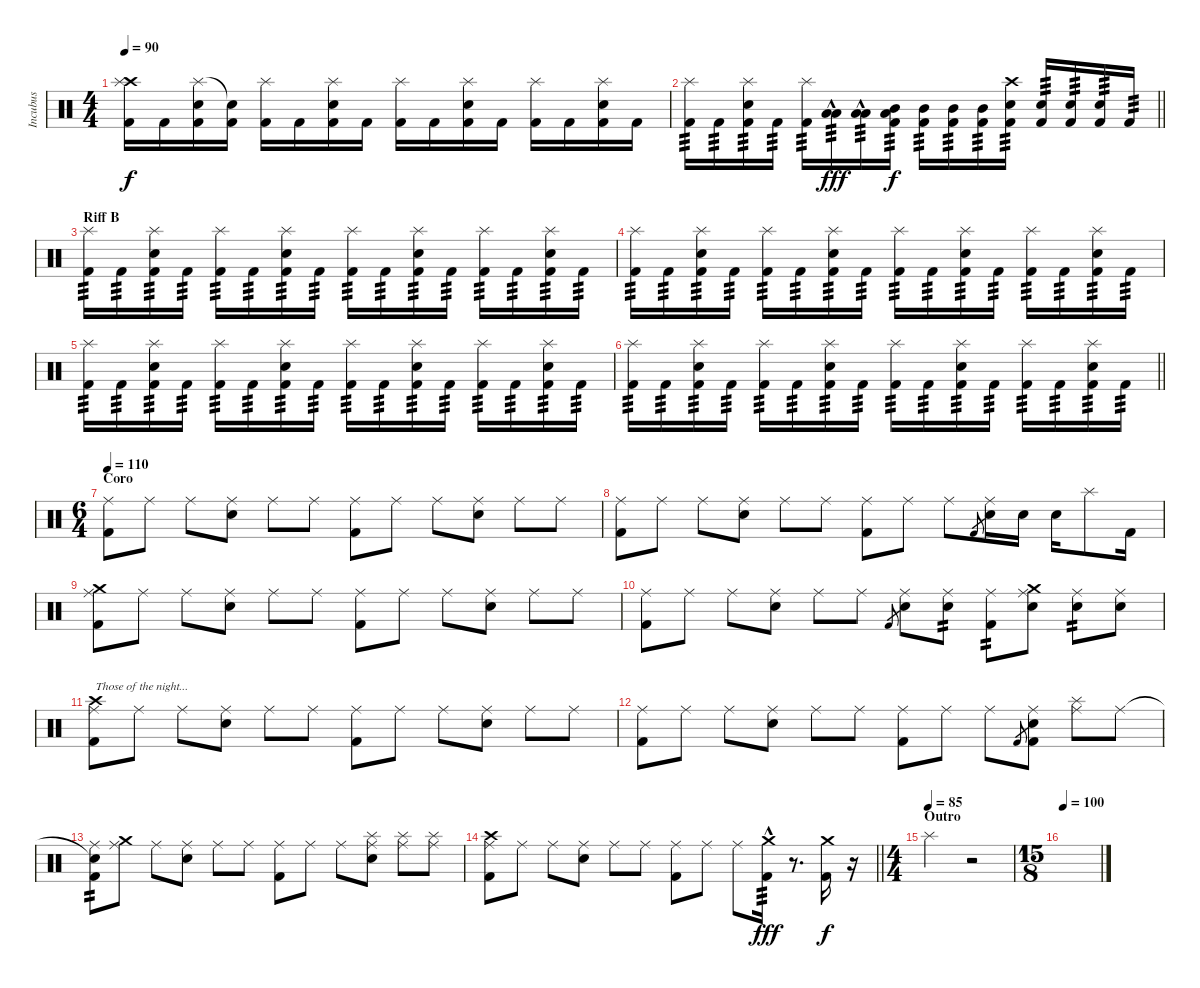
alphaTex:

\track ("Incubus" "Incubus") {instrument percussion}
\staff {score}
\articulation defaults
\ts (4 4)
\tempo 90
\clef neutral
\ks c
("Crash high (hit)" "Splash (hit)" "Kick (hit) 2").16{dy f} "Kick (hit) 2".16 ("Splash (hit)" "Snare (hit) 2" "Kick (hit) 2").16 ("Snare (hit)"{t} "Kick (hit) 2").16 ("Splash (hit)" "Kick (hit) 2").16 "Kick (hit) 2".16 ("Splash (hit)" "Snare (hit) 2" "Kick (hit) 2").16 "Kick (hit) 2".16 ("Splash (hit)" "Kick (hit) 2").16 "Kick (hit) 2".16 ("Splash (hit)" "Snare (hit) 2" "Kick (hit) 2").16 "Kick (hit) 2".16 ("Splash (hit)" "Kick (hit) 2").16 "Kick (hit) 2".16 ("Splash (hit)" "Snare (hit) 2" "Kick (hit) 2").16 "Kick (hit) 2".16 |
\barLineRight lightlight
("Splash (hit)" "Kick (hit) 2").16{tp 3} "Kick (hit) 2".16{tp 3} ("Splash (hit)" "Snare (hit) 2" "Kick (hit) 2").16{tp 3} "Kick (hit) 2".16{tp 3} ("Splash (hit)" "Kick (hit) 2").16{tp 3} ("Low Tom (hit)" "Low Tom (hit)"{hac}).16{tp 3 dy fff} ("Low Tom (hit)" "Low Tom (hit)"{hac}).16{tp 3} ("Low Floor Tom (hit)" "Mid Tom (hit)" "Kick (hit) 2").16{tp 3 dy f} ("Mid Tom (hit)" "Kick (hit) 2").16{tp 3} ("Mid Tom (hit)" "Kick (hit) 2").16{tp 3} ("Mid Tom (hit)" "Kick (hit) 2").16{tp 3} ("Crash high (hit)" "Snare (hit) 2" "Kick (hit) 2").16{tp 3} ("Snare (hit) 2" "Kick (hit) 2").16{tp 3} ("Snare (hit) 2" "Kick (hit) 2").16{tp 3} ("Snare (hit) 2" "Kick (hit) 2").16{tp 3} "Kick (hit) 2".16{tp 3} |
\section ("" "Riff B")
("Splash (hit)" "Kick (hit) 2").16{tp 3} "Kick (hit) 2".16{tp 3} ("Splash (hit)" "Snare (hit) 2" "Kick (hit) 2").16{tp 3} "Kick (hit) 2".16{tp 3} ("Splash (hit)" "Kick (hit) 2").16{tp 3} "Kick (hit) 2".16{tp 3} ("Splash (hit)" "Snare (hit) 2" "Kick (hit) 2").16{tp 3} "Kick (hit) 2".16{tp 3} ("Splash (hit)" "Kick (hit) 2").16{tp 3} "Kick (hit) 2".16{tp 3} ("Splash (hit)" "Snare (hit) 2" "Kick (hit) 2").16{tp 3} "Kick (hit) 2".16{tp 3} ("Splash (hit)" "Kick (hit) 2").16{tp 3} "Kick (hit) 2".16{tp 3} ("Splash (hit)" "Snare (hit) 2" "Kick (hit) 2").16{tp 3} "Kick (hit) 2".16{tp 3} |
("Splash (hit)" "Kick (hit) 2").16{tp 3} "Kick (hit) 2".16{tp 3} ("Splash (hit)" "Snare (hit) 2" "Kick (hit) 2").16{tp 3} "Kick (hit) 2".16{tp 3} ("Splash (hit)" "Kick (hit) 2").16{tp 3} "Kick (hit) 2".16{tp 3} ("Splash (hit)" "Snare (hit) 2" "Kick (hit) 2").16{tp 3} "Kick (hit) 2".16{tp 3} ("Splash (hit)" "Kick (hit) 2").16{tp 3} "Kick (hit) 2".16{tp 3} ("Splash (hit)" "Snare (hit) 2" "Kick (hit) 2").16{tp 3} "Kick (hit) 2".16{tp 3} ("Splash (hit)" "Kick (hit) 2").16{tp 3} "Kick (hit) 2".16{tp 3} ("Splash (hit)" "Snare (hit) 2" "Kick (hit) 2").16{tp 3} "Kick (hit) 2".16{tp 3} |
("Splash (hit)" "Kick (hit) 2").16{tp 3} "Kick (hit) 2".16{tp 3} ("Splash (hit)" "Snare (hit) 2" "Kick (hit) 2").16{tp 3} "Kick (hit) 2".16{tp 3} ("Splash (hit)" "Kick (hit) 2").16{tp 3} "Kick (hit) 2".16{tp 3} ("Splash (hit)" "Snare (hit) 2" "Kick (hit) 2").16{tp 3} "Kick (hit) 2".16{tp 3} ("Splash (hit)" "Kick (hit) 2").16{tp 3} "Kick (hit) 2".16{tp 3} ("Splash (hit)" "Snare (hit) 2" "Kick (hit) 2").16{tp 3} "Kick (hit) 2".16{tp 3} ("Splash (hit)" "Kick (hit) 2").16{tp 3} "Kick (hit) 2".16{tp 3} ("Splash (hit)" "Snare (hit) 2" "Kick (hit) 2").16{tp 3} "Kick (hit) 2".16{tp 3} |
\barLineRight lightlight
("Splash (hit)" "Kick (hit) 2").16{tp 3} "Kick (hit) 2".16{tp 3} ("Splash (hit)" "Snare (hit) 2" "Kick (hit) 2").16{tp 3} "Kick (hit) 2".16{tp 3} ("Splash (hit)" "Kick (hit) 2").16{tp 3} "Kick (hit) 2".16{tp 3} ("Splash (hit)" "Snare (hit) 2" "Kick (hit) 2").16{tp 3} "Kick (hit) 2".16{tp 3} ("Splash (hit)" "Kick (hit) 2").16{tp 3} "Kick (hit) 2".16{tp 3} ("Splash (hit)" "Snare (hit) 2" "Kick (hit) 2").16{tp 3} "Kick (hit) 2".16{tp 3} ("Splash (hit)" "Kick (hit) 2").16{tp 3} "Kick (hit) 2".16{tp 3} ("Splash (hit)" "Snare (hit) 2" "Kick (hit) 2").16{tp 3} "Kick (hit) 2".16{tp 3} |
\ts (6 4)
\section ("" "Coro")
\tempo 110
("Ride (middle)" "Kick (hit) 2").8 "Ride (middle)".8 "Ride (middle)".8 ("Ride (middle)" "Snare (hit) 2").8 "Ride (middle)".8 "Ride (middle)".8 ("Ride (middle)" "Kick (hit) 2").8 "Ride (middle)".8 "Ride (middle)".8 ("Ride (middle)" "Snare (hit) 2").8 "Ride (middle)".8 "Ride (middle)".8 |
("Ride (middle)" "Kick (hit) 2").8 "Ride (middle)".8 "Ride (middle)".8 ("Ride (middle)" "Snare (hit) 2").8 "Ride (middle)".8 "Ride (middle)".8 ("Ride (middle)" "Kick (hit) 2").8 "Ride (middle)".8 "Ride (middle)".8 "Kick (hit) 2".8{gr} ("Ride (middle)" "Snare (hit) 2").16 "Snare (hit) 2".16 "Snare (hit) 2".16 "Splash (hit)".8 "Kick (hit) 2".16 |
("Crash medium (hit)" "Ride (middle)" "Kick (hit) 2").8 "Ride (middle)".8 "Ride (middle)".8 ("Ride (middle)" "Snare (hit) 2").8 "Ride (middle)".8 "Ride (middle)".8 ("Ride (middle)" "Kick (hit) 2").8 "Ride (middle)".8 "Ride (middle)".8 ("Ride (middle)" "Snare (hit) 2").8 "Ride (middle)".8 "Ride (middle)".8 |
("Ride (middle)" "Kick (hit) 2").8 "Ride (middle)".8 "Ride (middle)".8 ("Ride (middle)" "Snare (hit) 2").8 "Ride (middle)".8 "Ride (middle)".8 "Kick (hit) 2".8{gr} ("Ride (middle)" "Snare (hit) 2").8 ("Ride (middle)" "Snare (hit) 2").8{tp 2} ("Ride (middle)" "Kick (hit) 2").8{tp 2} ("Crash medium (hit)" "Ride (middle)" "Snare (hit) 2").8 ("Ride (middle)" "Snare (hit) 2").8{tp 2} ("Ride (middle)" "Snare (hit) 2").8 |
("Crash high (hit)" "Ride (middle)" "Kick (hit) 2").8{txt "Those of the night..."} "Ride (middle)".8 "Ride (middle)".8 ("Ride (middle)" "Snare (hit) 2").8 "Ride (middle)".8 "Ride (middle)".8 ("Ride (middle)" "Kick (hit) 2").8 "Ride (middle)".8 "Ride (middle)".8 ("Ride (middle)" "Snare (hit) 2").8 "Ride (middle)".8 "Ride (middle)".8 |
("Ride (middle)" "Kick (hit) 2").8 "Ride (middle)".8 "Ride (middle)".8 ("Ride (middle)" "Snare (hit) 2").8 "Ride (middle)".8 "Ride (middle)".8 ("Ride (middle)" "Kick (hit) 2").8 "Ride (middle)".8 "Ride (middle)".8 "Kick (hit) 2".8{gr} ("Ride (middle)" "Snare (hit) 2" "Kick (hit) 2").8 ("Splash (hit)" "Ride (middle)").8 "Ride (middle)".8 |
("Snare (hit)"{t} "Ride (middle)" "Kick (hit) 2").8{tp 2} ("Crash medium (hit)" "Ride (middle)").8 "Ride (middle)".8 ("Ride (middle)" "Snare (hit) 2").8 "Ride (middle)".8 "Ride (middle)".8 ("Ride (middle)" "Kick (hit) 2").8 "Ride (middle)".8 "Ride (middle)".8 ("Splash (hit)" "Ride (middle)" "Snare (hit) 2").8 ("Splash (hit)" "Ride (middle)").8 ("Splash (hit)" "Ride (middle)").8 |
\barLineRight lightlight
("Crash high (hit)" "Ride (middle)" "Kick (hit) 2").8 "Ride (middle)".8 "Ride (middle)".8 ("Ride (middle)" "Snare (hit) 2").8 "Ride (middle)".8 "Ride (middle)".8 ("Ride (middle)" "Kick (hit) 2").8 "Ride (middle)".8 "Ride (middle)".8 ("Crash medium (hit)" "Kick (hit) 2"{hac}).16{tp 3 dy fff} r.8{d} ("Crash medium (hit)" "Kick (hit) 2").16{dy f} r.16 |
\ts (4 4)
\section ("" "Outro")
\tempo (85)
"Splash (hit)".2 r.2 |
\ts (15 8)
\tempo 100
